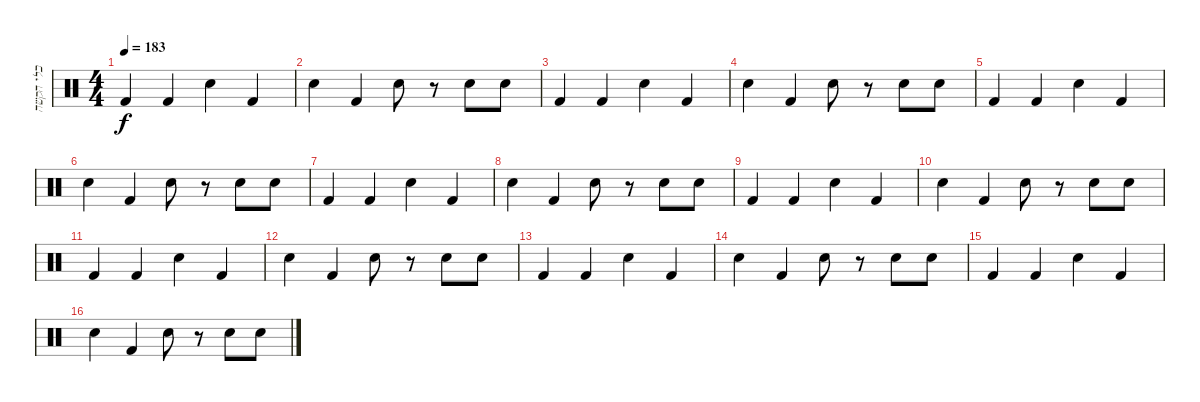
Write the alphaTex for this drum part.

\track ("כלי הקשה" "כלי הקשה") {instrument percussion}
\staff {score}
\articulation defaults
\ts (4 4)
\tempo 183
\clef neutral
\ks c "Kick (hit) 2".4{dy f} "Kick (hit) 2".4 "Snare (hit) 2".4 "Kick (hit) 2".4
|
"Snare (hit) 2".4 "Kick (hit) 2".4 "Snare (hit) 2".8 r.8 "Snare (hit) 2".8 "Snare (hit) 2".8 |
"Kick (hit) 2".4 "Kick (hit) 2".4 "Snare (hit) 2".4 "Kick (hit) 2".4 |
"Snare (hit) 2".4 "Kick (hit) 2".4 "Snare (hit) 2".8 r.8 "Snare (hit) 2".8 "Snare (hit) 2".8 |
"Kick (hit) 2".4 "Kick (hit) 2".4 "Snare (hit) 2".4 "Kick (hit) 2".4 |
"Snare (hit) 2".4 "Kick (hit) 2".4 "Snare (hit) 2".8 r.8 "Snare (hit) 2".8 "Snare (hit) 2".8 |
"Kick (hit) 2".4 "Kick (hit) 2".4 "Snare (hit) 2".4 "Kick (hit) 2".4 |
"Snare (hit) 2".4 "Kick (hit) 2".4 "Snare (hit) 2".8 r.8 "Snare (hit) 2".8 "Snare (hit) 2".8 |
"Kick (hit) 2".4 "Kick (hit) 2".4 "Snare (hit) 2".4 "Kick (hit) 2".4 |
"Snare (hit) 2".4 "Kick (hit) 2".4 "Snare (hit) 2".8 r.8 "Snare (hit) 2".8 "Snare (hit) 2".8 |
"Kick (hit) 2".4 "Kick (hit) 2".4 "Snare (hit) 2".4 "Kick (hit) 2".4 |
"Snare (hit) 2".4 "Kick (hit) 2".4 "Snare (hit) 2".8 r.8 "Snare (hit) 2".8 "Snare (hit) 2".8 |
"Kick (hit) 2".4 "Kick (hit) 2".4 "Snare (hit) 2".4 "Kick (hit) 2".4 |
"Snare (hit) 2".4 "Kick (hit) 2".4 "Snare (hit) 2".8 r.8 "Snare (hit) 2".8 "Snare (hit) 2".8 |
"Kick (hit) 2".4 "Kick (hit) 2".4 "Snare (hit) 2".4 "Kick (hit) 2".4 |
"Snare (hit) 2".4 "Kick (hit) 2".4 "Snare (hit) 2".8 r.8 "Snare (hit) 2".8 "Snare (hit) 2".8
